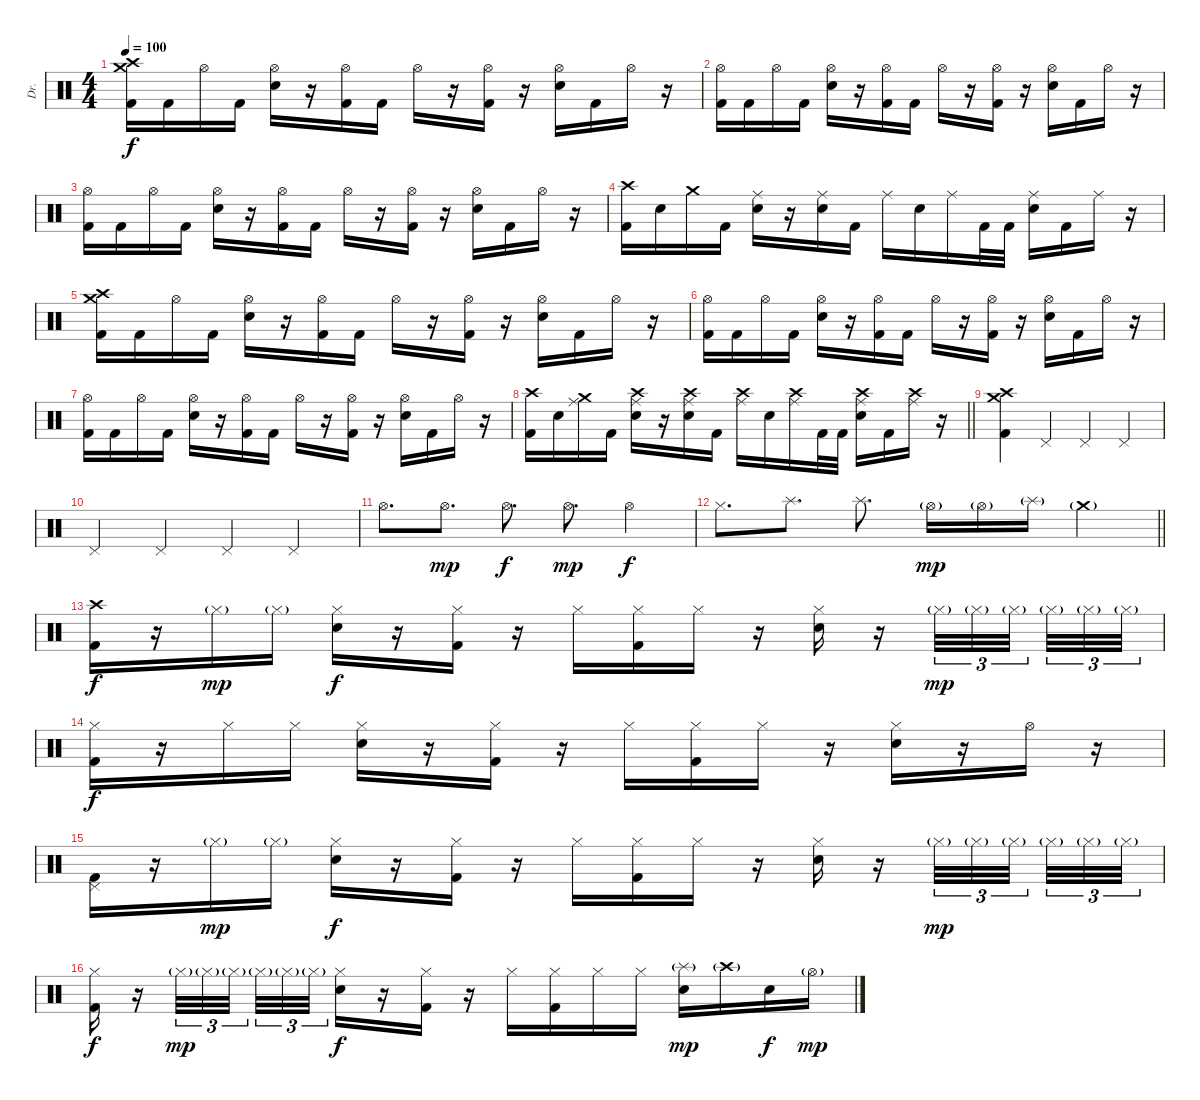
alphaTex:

\track ("Dr." "Dr.") {instrument percussion}
\staff {score}
\articulation defaults
\ts (4 4)
\tempo 100
\clef neutral
\ks c
("Crash high (hit)" "Crash medium (hit)" "Kick (hit) 2").16{dy f} "Kick (hit) 2".16 "Hi-Hat (open)".16 "Kick (hit) 2".16 ("Hi-Hat (open)" "Electric Snare (hit)").16 r.16 ("Hi-Hat (open)" "Kick (hit) 2").16 "Kick (hit) 2".16 "Hi-Hat (open)".16 r.16 ("Hi-Hat (open)" "Kick (hit) 2").16 r.16 ("Hi-Hat (open)" "Electric Snare (hit)").16 "Kick (hit) 2".16 "Hi-Hat (open)".16 r.16 |
("Hi-Hat (open)" "Kick (hit) 2").16 "Kick (hit) 2".16 "Hi-Hat (open)".16 "Kick (hit) 2".16 ("Hi-Hat (open)" "Electric Snare (hit)").16 r.16 ("Hi-Hat (open)" "Kick (hit) 2").16 "Kick (hit) 2".16 "Hi-Hat (open)".16 r.16 ("Hi-Hat (open)" "Kick (hit) 2").16 r.16 ("Hi-Hat (open)" "Electric Snare (hit)").16 "Kick (hit) 2".16 "Hi-Hat (open)".16 r.16 |
("Hi-Hat (open)" "Kick (hit) 2").16 "Kick (hit) 2".16 "Hi-Hat (open)".16 "Kick (hit) 2".16 ("Hi-Hat (open)" "Electric Snare (hit)").16 r.16 ("Hi-Hat (open)" "Kick (hit) 2").16 "Kick (hit) 2".16 "Hi-Hat (open)".16 r.16 ("Hi-Hat (open)" "Kick (hit) 2").16 r.16 ("Hi-Hat (open)" "Electric Snare (hit)").16 "Kick (hit) 2".16 "Hi-Hat (open)".16 r.16 |
("Crash high (hit)" "Kick (hit) 2").16 "Electric Snare (hit)".16 "Crash medium (hit)".16 "Kick (hit) 2".16 ("Ride (middle)" "Electric Snare (hit)").16 r.16 ("Ride (middle)" "Electric Snare (hit)").16 "Kick (hit) 2".16 "Ride (middle)".16 "Electric Snare (hit)".16 "Ride (middle)".16 "Kick (hit) 2".32 "Kick (hit) 2".32 ("Ride (middle)" "Electric Snare (hit)").16 "Kick (hit) 2".16 "Ride (middle)".16 r.16 |
("Crash high (hit)" "Crash medium (hit)" "Kick (hit) 2").16 "Kick (hit) 2".16 "Hi-Hat (open)".16 "Kick (hit) 2".16 ("Hi-Hat (open)" "Electric Snare (hit)").16 r.16 ("Hi-Hat (open)" "Kick (hit) 2").16 "Kick (hit) 2".16 "Hi-Hat (open)".16 r.16 ("Hi-Hat (open)" "Kick (hit) 2").16 r.16 ("Hi-Hat (open)" "Electric Snare (hit)").16 "Kick (hit) 2".16 "Hi-Hat (open)".16 r.16 |
("Hi-Hat (open)" "Kick (hit) 2").16 "Kick (hit) 2".16 "Hi-Hat (open)".16 "Kick (hit) 2".16 ("Hi-Hat (open)" "Electric Snare (hit)").16 r.16 ("Hi-Hat (open)" "Kick (hit) 2").16 "Kick (hit) 2".16 "Hi-Hat (open)".16 r.16 ("Hi-Hat (open)" "Kick (hit) 2").16 r.16 ("Hi-Hat (open)" "Electric Snare (hit)").16 "Kick (hit) 2".16 "Hi-Hat (open)".16 r.16 |
("Hi-Hat (open)" "Kick (hit) 2").16 "Kick (hit) 2".16 "Hi-Hat (open)".16 "Kick (hit) 2".16 ("Hi-Hat (open)" "Electric Snare (hit)").16 r.16 ("Hi-Hat (open)" "Kick (hit) 2").16 "Kick (hit) 2".16 "Hi-Hat (open)".16 r.16 ("Hi-Hat (open)" "Kick (hit) 2").16 r.16 ("Hi-Hat (open)" "Electric Snare (hit)").16 "Kick (hit) 2".16 "Hi-Hat (open)".16 r.16 |
\barLineRight lightlight
("Crash high (hit)" "Kick (hit) 2").16 "Electric Snare (hit)".16 ("Crash medium (hit)" "Ride (middle)").16 "Kick (hit) 2".16 ("Crash high (hit)" "Ride (middle)" "Electric Snare (hit)").16 r.16 ("Crash high (hit)" "Ride (middle)" "Electric Snare (hit)").16 "Kick (hit) 2".16 ("Crash high (hit)" "Ride (middle)").16 "Electric Snare (hit)".16 ("Crash high (hit)" "Ride (middle)").16 "Kick (hit) 2".32 "Kick (hit) 2".32 ("Crash high (hit)" "Ride (middle)" "Electric Snare (hit)").16 "Kick (hit) 2".16 ("Crash high (hit)" "Ride (middle)").16 r.16 |
("Crash high (hit)" "Crash medium (hit)" "Kick (hit) 2").4 "Pedal Hi-Hat (hit)".4 "Pedal Hi-Hat (hit)".4 "Pedal Hi-Hat (hit)".4 |
"Pedal Hi-Hat (hit)".4 "Pedal Hi-Hat (hit)".4 "Pedal Hi-Hat (hit)".4 "Pedal Hi-Hat (hit)".4 |
"Hi-Hat (open)".8{d} "Hi-Hat (open)".8{d dy mp} "Hi-Hat (open)".8{d dy f} "Hi-Hat (open)".8{d dy mp} "Hi-Hat (open)".4{dy f} |
\barLineRight lightlight "Hi-Hat (closed)".8{d} "Splash (hit)".8{d} "Splash (hit)".8{d} "Hi-Hat (open)"{g}.16{dy mp} "Hi-Hat (open)"{g}.16 "Splash (hit)"{g}.16 "Crash medium (hit)"{g}.4
|
("Crash high (hit)" "Kick (hit) 2").16{dy f} r.16 "Hi-Hat (closed)"{g}.16{dy mp} "Hi-Hat (closed)"{g}.16 ("Hi-Hat (closed)" "Electric Snare (hit)").16{dy f} r.16 ("Hi-Hat (closed)" "Kick (hit) 2").16 r.16 "Hi-Hat (closed)".16 ("Hi-Hat (closed)" "Kick (hit) 2").16 "Hi-Hat (closed)".16 r.16 ("Hi-Hat (closed)" "Electric Snare (hit)").16 r.16 "Hi-Hat (closed)"{g}.32{tu (3 2) dy mp} "Hi-Hat (closed)"{g}.32{tu (3 2)} "Hi-Hat (closed)"{g}.32{tu (3 2) beam splitsecondary} "Hi-Hat (closed)"{g}.32{tu (3 2)} "Hi-Hat (closed)"{g}.32{tu (3 2)} "Hi-Hat (closed)"{g}.32{tu (3 2)} |
("Hi-Hat (closed)" "Kick (hit) 2").16{dy f} r.16 "Hi-Hat (closed)".16 "Hi-Hat (closed)".16 ("Hi-Hat (closed)" "Electric Snare (hit)").16 r.16 ("Hi-Hat (closed)" "Kick (hit) 2").16 r.16 "Hi-Hat (closed)".16 ("Hi-Hat (closed)" "Kick (hit) 2").16 "Hi-Hat (closed)".16 r.16 ("Hi-Hat (closed)" "Electric Snare (hit)").16 r.16 "Hi-Hat (open)".16 r.16 |
("Pedal Hi-Hat (hit)" "Kick (hit) 2").16 r.16 "Hi-Hat (closed)"{g}.16{dy mp} "Hi-Hat (closed)"{g}.16 ("Hi-Hat (closed)" "Electric Snare (hit)").16{dy f} r.16 ("Hi-Hat (closed)" "Kick (hit) 2").16 r.16 "Hi-Hat (closed)".16 ("Hi-Hat (closed)" "Kick (hit) 2").16 "Hi-Hat (closed)".16 r.16 ("Hi-Hat (closed)" "Electric Snare (hit)").16 r.16 "Hi-Hat (closed)"{g}.32{tu (3 2) dy mp} "Hi-Hat (closed)"{g}.32{tu (3 2)} "Hi-Hat (closed)"{g}.32{tu (3 2) beam splitsecondary} "Hi-Hat (closed)"{g}.32{tu (3 2)} "Hi-Hat (closed)"{g}.32{tu (3 2)} "Hi-Hat (closed)"{g}.32{tu (3 2)} |
("Hi-Hat (closed)" "Kick (hit) 2").16{dy f} r.16 "Hi-Hat (closed)"{g}.32{tu (3 2) dy mp} "Hi-Hat (closed)"{g}.32{tu (3 2)} "Hi-Hat (closed)"{g}.32{tu (3 2) beam splitsecondary} "Hi-Hat (closed)"{g}.32{tu (3 2)} "Hi-Hat (closed)"{g}.32{tu (3 2)} "Hi-Hat (closed)"{g}.32{tu (3 2)} ("Hi-Hat (closed)" "Electric Snare (hit)").16{dy f} r.16 ("Hi-Hat (closed)" "Kick (hit) 2").16 r.16 "Hi-Hat (closed)".16 ("Hi-Hat (closed)" "Kick (hit) 2").16 "Hi-Hat (closed)".16 "Hi-Hat (closed)".16 ("Splash (hit)"{g} "Electric Snare (hit)").16{dy mp} "Crash high (hit)"{g}.16 "Metronome (bell)".16{dy f} "Hi-Hat (open)"{g}.16{dy mp}
